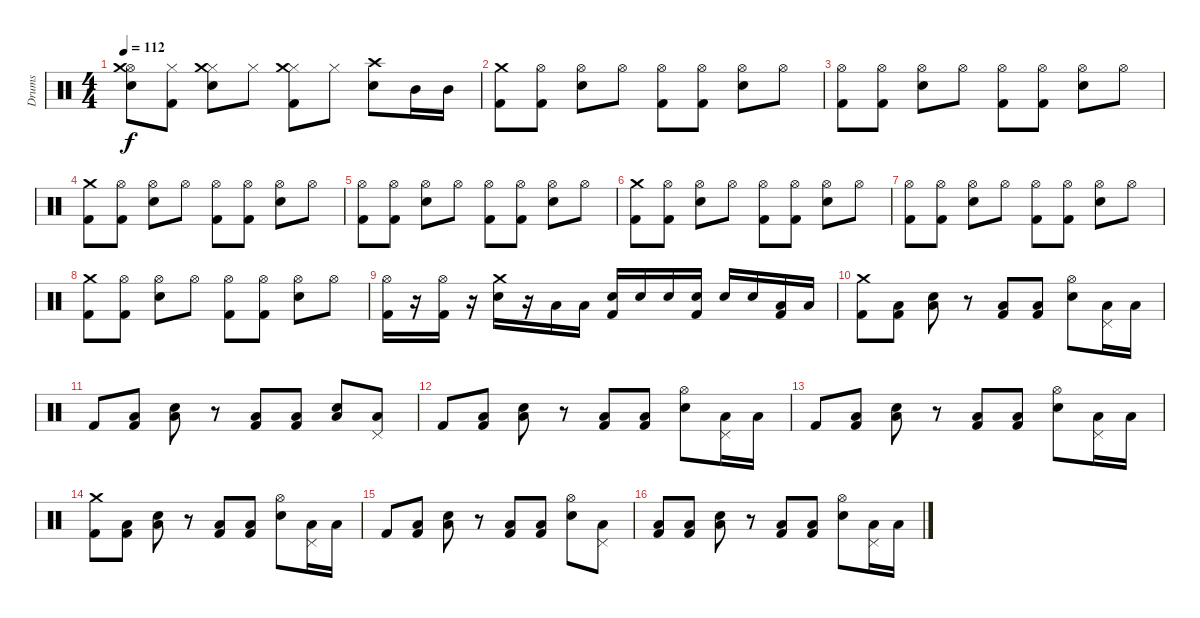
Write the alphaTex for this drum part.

\track ("Drums" "Drums") {instrument percussion}
\staff {score}
\articulation defaults
\ts (4 4)
\tempo 112
\clef neutral
\ks c
("Electric Snare (hit)" "Hi-Hat (open)" "Crash medium (hit)").8{dy f} ("Kick (hit) 2" "Hi-Hat (closed)").8 ("Electric Snare (hit)" "Hi-Hat (closed)" "Crash medium (hit)").8 "Hi-Hat (closed)".8 ("Kick (hit) 2" "Hi-Hat (closed)" "Crash medium (hit)").8 "Hi-Hat (closed)".8 ("Electric Snare (hit)" "Crash high (hit)").8 "Mid Tom (hit)".16 "Mid Tom (hit)".16 |
("Kick (hit) 2" "Crash medium (hit)").8 ("Kick (hit) 2" "Hi-Hat (open)").8 ("Electric Snare (hit)" "Hi-Hat (open)").8 "Hi-Hat (open)".8 ("Kick (hit) 2" "Hi-Hat (open)").8 ("Kick (hit) 2" "Hi-Hat (open)").8 ("Electric Snare (hit)" "Hi-Hat (open)").8 "Hi-Hat (open)".8 |
("Kick (hit) 2" "Hi-Hat (open)").8 ("Kick (hit) 2" "Hi-Hat (open)").8 ("Electric Snare (hit)" "Hi-Hat (open)").8 "Hi-Hat (open)".8 ("Kick (hit) 2" "Hi-Hat (open)").8 ("Kick (hit) 2" "Hi-Hat (open)").8 ("Electric Snare (hit)" "Hi-Hat (open)").8 "Hi-Hat (open)".8 |
("Kick (hit) 2" "Crash medium (hit)").8 ("Kick (hit) 2" "Hi-Hat (open)").8 ("Electric Snare (hit)" "Hi-Hat (open)").8 "Hi-Hat (open)".8 ("Kick (hit) 2" "Hi-Hat (open)").8 ("Kick (hit) 2" "Hi-Hat (open)").8 ("Electric Snare (hit)" "Hi-Hat (open)").8 "Hi-Hat (open)".8 |
("Kick (hit) 2" "Hi-Hat (open)").8 ("Kick (hit) 2" "Hi-Hat (open)").8 ("Electric Snare (hit)" "Hi-Hat (open)").8 "Hi-Hat (open)".8 ("Kick (hit) 2" "Hi-Hat (open)").8 ("Kick (hit) 2" "Hi-Hat (open)").8 ("Electric Snare (hit)" "Hi-Hat (open)").8 "Hi-Hat (open)".8 |
("Kick (hit) 2" "Crash medium (hit)").8 ("Kick (hit) 2" "Hi-Hat (open)").8 ("Electric Snare (hit)" "Hi-Hat (open)").8 "Hi-Hat (open)".8 ("Kick (hit) 2" "Hi-Hat (open)").8 ("Kick (hit) 2" "Hi-Hat (open)").8 ("Electric Snare (hit)" "Hi-Hat (open)").8 "Hi-Hat (open)".8 |
("Kick (hit) 2" "Hi-Hat (open)").8 ("Kick (hit) 2" "Hi-Hat (open)").8 ("Electric Snare (hit)" "Hi-Hat (open)").8 "Hi-Hat (open)".8 ("Kick (hit) 2" "Hi-Hat (open)").8 ("Kick (hit) 2" "Hi-Hat (open)").8 ("Electric Snare (hit)" "Hi-Hat (open)").8 "Hi-Hat (open)".8 |
("Kick (hit) 2" "Crash medium (hit)").8 ("Kick (hit) 2" "Hi-Hat (open)").8 ("Electric Snare (hit)" "Hi-Hat (open)").8 "Hi-Hat (open)".8 ("Kick (hit) 2" "Hi-Hat (open)").8 ("Kick (hit) 2" "Hi-Hat (open)").8 ("Electric Snare (hit)" "Hi-Hat (open)").8 "Hi-Hat (open)".8 |
("Kick (hit) 2" "Hi-Hat (open)").16 r.16 ("Kick (hit) 2" "Hi-Hat (open)").16 r.16 ("Crash medium (hit)" "Electric Snare (hit)").16 r.16 "Low Tom (hit)".16 "Low Tom (hit)".16 ("Kick (hit) 2" "Electric Snare (hit)").16 "Electric Snare (hit)".16 "Electric Snare (hit)".16 ("Kick (hit) 2" "Electric Snare (hit)").16 "Electric Snare (hit)".16 "Electric Snare (hit)".16 ("Kick (hit) 2" "Low Tom (hit)").16 "Low Tom (hit)".16 |
("Kick (hit) 2" "Crash medium (hit)").8 ("Kick (hit) 2" "Low Tom (hit)").8 ("Electric Snare (hit)" "Low Tom (hit)").8 r.8 ("Kick (hit) 2" "Low Tom (hit)").8 ("Kick (hit) 2" "Low Tom (hit)").8 ("Electric Snare (hit)" "Hi-Hat (open)").8 ("Pedal Hi-Hat (hit)" "Low Tom (hit)").16 "Low Tom (hit)".16 |
"Kick (hit) 2".8 ("Kick (hit) 2" "Low Tom (hit)").8 ("Electric Snare (hit)" "Low Tom (hit)").8 r.8 ("Kick (hit) 2" "Low Tom (hit)").8 ("Kick (hit) 2" "Low Tom (hit)").8 ("Electric Snare (hit)" "Low Tom (hit)").8 ("Pedal Hi-Hat (hit)" "Low Tom (hit)").8 |
"Kick (hit) 2".8 ("Kick (hit) 2" "Low Tom (hit)").8 ("Electric Snare (hit)" "Low Tom (hit)").8 r.8 ("Kick (hit) 2" "Low Tom (hit)").8 ("Kick (hit) 2" "Low Tom (hit)").8 ("Electric Snare (hit)" "Hi-Hat (open)").8 ("Pedal Hi-Hat (hit)" "Low Tom (hit)").16 "Low Tom (hit)".16 |
"Kick (hit) 2".8 ("Kick (hit) 2" "Low Tom (hit)").8 ("Electric Snare (hit)" "Low Tom (hit)").8 r.8 ("Kick (hit) 2" "Low Tom (hit)").8 ("Kick (hit) 2" "Low Tom (hit)").8 ("Electric Snare (hit)" "Hi-Hat (open)").8 ("Pedal Hi-Hat (hit)" "Low Tom (hit)").16 "Low Tom (hit)".16 |
("Kick (hit) 2" "Crash medium (hit)").8 ("Kick (hit) 2" "Low Tom (hit)").8 ("Electric Snare (hit)" "Low Tom (hit)").8 r.8 ("Kick (hit) 2" "Low Tom (hit)").8 ("Kick (hit) 2" "Low Tom (hit)").8 ("Electric Snare (hit)" "Hi-Hat (open)").8 ("Pedal Hi-Hat (hit)" "Low Tom (hit)").16 "Low Tom (hit)".16 |
"Kick (hit) 2".8 ("Kick (hit) 2" "Low Tom (hit)").8 ("Electric Snare (hit)" "Low Tom (hit)").8 r.8 ("Kick (hit) 2" "Low Tom (hit)").8 ("Kick (hit) 2" "Low Tom (hit)").8 ("Electric Snare (hit)" "Hi-Hat (open)").8 ("Pedal Hi-Hat (hit)" "Low Tom (hit)").8 |
("Kick (hit) 2" "Low Tom (hit)").8 ("Kick (hit) 2" "Low Tom (hit)").8 ("Electric Snare (hit)" "Low Tom (hit)").8 r.8 ("Kick (hit) 2" "Low Tom (hit)").8 ("Kick (hit) 2" "Low Tom (hit)").8 ("Electric Snare (hit)" "Hi-Hat (open)").8 ("Pedal Hi-Hat (hit)" "Low Tom (hit)").16 "Low Tom (hit)".16
